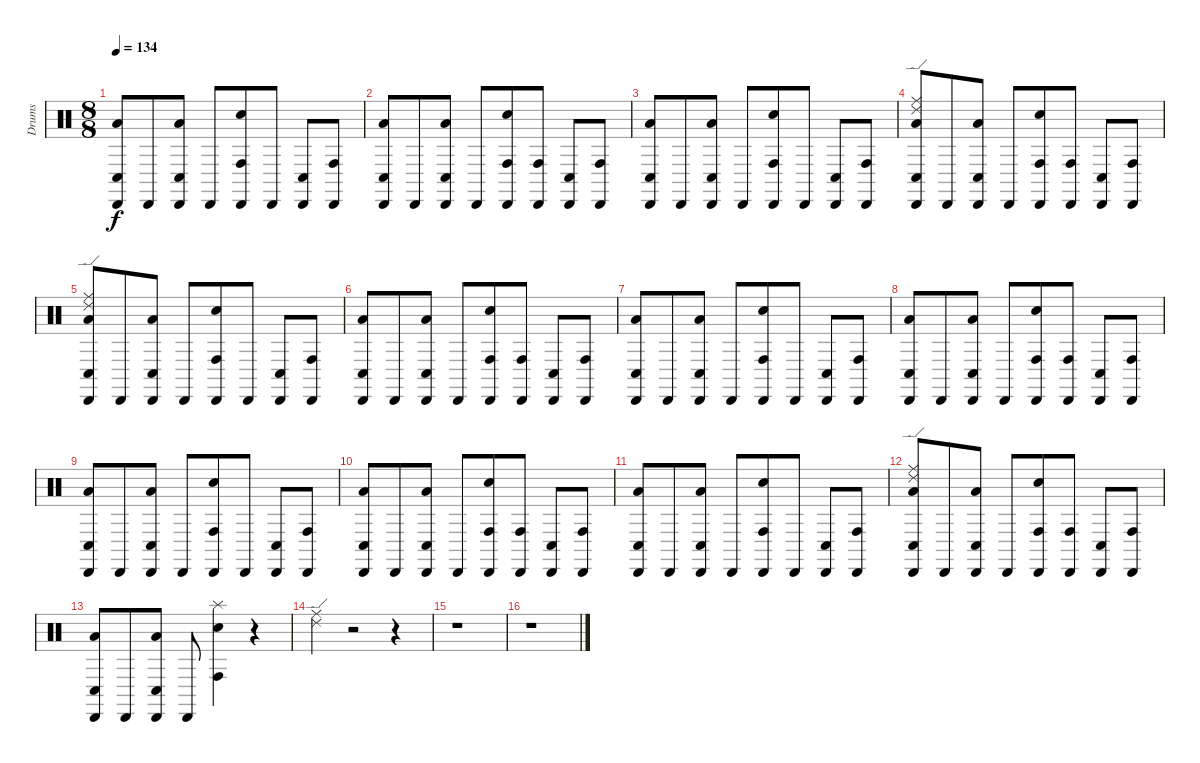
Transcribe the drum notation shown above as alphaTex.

\track ("Drums" "Drums") {instrument percussion}
\staff {score}
\articulation defaults
\ts (8 8)
\tempo 134
\clef neutral
\ks c
("Cabasa (hit)" "Low Tom (hit)" "Conga low (hit)").8{dy f} "Cabasa (hit)".8 ("Cabasa (hit)" "Low Tom (hit)" "Conga low (hit)").8 "Cabasa (hit)".8 ("Electric Snare (hit)" "Cabasa (hit)" "Conga high (hit)").8 "Cabasa (hit)".8 ("Cabasa (hit)" "Conga low (hit)").8 ("Cabasa (hit)" "Conga high (hit)").8 |
("Cabasa (hit)" "Low Tom (hit)" "Conga low (hit)").8 "Cabasa (hit)".8 ("Cabasa (hit)" "Low Tom (hit)" "Conga low (hit)").8 "Cabasa (hit)".8 ("Electric Snare (hit)" "Cabasa (hit)" "Conga high (hit)").8 ("Conga high (hit)" "Cabasa (hit)").8 ("Cabasa (hit)" "Conga low (hit)").8 ("Cabasa (hit)" "Conga high (hit)").8 |
("Cabasa (hit)" "Low Tom (hit)" "Conga low (hit)").8 "Cabasa (hit)".8 ("Cabasa (hit)" "Low Tom (hit)" "Conga low (hit)").8 "Cabasa (hit)".8 ("Electric Snare (hit)" "Cabasa (hit)" "Conga high (hit)").8 "Cabasa (hit)".8 ("Cabasa (hit)" "Conga low (hit)").8 ("Cabasa (hit)" "Conga high (hit)").8 |
("Ride (middle)" "Ride (edge) 2" "Cabasa (hit)" "Low Tom (hit)" "Conga low (hit)").8 "Cabasa (hit)".8 ("Cabasa (hit)" "Low Tom (hit)" "Conga low (hit)").8 "Cabasa (hit)".8 ("Electric Snare (hit)" "Cabasa (hit)" "Conga high (hit)").8 ("Conga high (hit)" "Cabasa (hit)").8 ("Cabasa (hit)" "Conga low (hit)").8 ("Cabasa (hit)" "Conga high (hit)").8 |
("Ride (edge) 2" "Ride (middle)" "Cabasa (hit)" "Low Tom (hit)" "Conga low (hit)").8 "Cabasa (hit)".8 ("Cabasa (hit)" "Low Tom (hit)" "Conga low (hit)").8 "Cabasa (hit)".8 ("Electric Snare (hit)" "Cabasa (hit)" "Conga high (hit)").8 "Cabasa (hit)".8 ("Cabasa (hit)" "Conga low (hit)").8 ("Cabasa (hit)" "Conga high (hit)").8 |
("Cabasa (hit)" "Low Tom (hit)" "Conga low (hit)").8 "Cabasa (hit)".8 ("Cabasa (hit)" "Low Tom (hit)" "Conga low (hit)").8 "Cabasa (hit)".8 ("Electric Snare (hit)" "Cabasa (hit)" "Conga high (hit)").8 ("Conga high (hit)" "Cabasa (hit)").8 ("Cabasa (hit)" "Conga low (hit)").8 ("Cabasa (hit)" "Conga high (hit)").8 |
("Cabasa (hit)" "Low Tom (hit)" "Conga low (hit)").8 "Cabasa (hit)".8 ("Cabasa (hit)" "Low Tom (hit)" "Conga low (hit)").8 "Cabasa (hit)".8 ("Electric Snare (hit)" "Cabasa (hit)" "Conga high (hit)").8 "Cabasa (hit)".8 ("Cabasa (hit)" "Conga low (hit)").8 ("Cabasa (hit)" "Conga high (hit)").8 |
("Cabasa (hit)" "Low Tom (hit)" "Conga low (hit)").8 "Cabasa (hit)".8 ("Cabasa (hit)" "Low Tom (hit)" "Conga low (hit)").8 "Cabasa (hit)".8 ("Electric Snare (hit)" "Cabasa (hit)" "Conga high (hit)").8 ("Conga high (hit)" "Cabasa (hit)").8 ("Cabasa (hit)" "Conga low (hit)").8 ("Cabasa (hit)" "Conga high (hit)").8 |
("Cabasa (hit)" "Low Tom (hit)" "Conga low (hit)").8 "Cabasa (hit)".8 ("Cabasa (hit)" "Low Tom (hit)" "Conga low (hit)").8 "Cabasa (hit)".8 ("Electric Snare (hit)" "Cabasa (hit)" "Conga high (hit)").8 "Cabasa (hit)".8 ("Cabasa (hit)" "Conga low (hit)").8 ("Cabasa (hit)" "Conga high (hit)").8 |
("Cabasa (hit)" "Low Tom (hit)" "Conga low (hit)").8 "Cabasa (hit)".8 ("Cabasa (hit)" "Low Tom (hit)" "Conga low (hit)").8 "Cabasa (hit)".8 ("Electric Snare (hit)" "Cabasa (hit)" "Conga high (hit)").8 ("Conga high (hit)" "Cabasa (hit)").8 ("Cabasa (hit)" "Conga low (hit)").8 ("Cabasa (hit)" "Conga high (hit)").8 |
("Cabasa (hit)" "Low Tom (hit)" "Conga low (hit)").8 "Cabasa (hit)".8 ("Cabasa (hit)" "Low Tom (hit)" "Conga low (hit)").8 "Cabasa (hit)".8 ("Electric Snare (hit)" "Cabasa (hit)" "Conga high (hit)").8 "Cabasa (hit)".8 ("Cabasa (hit)" "Conga low (hit)").8 ("Cabasa (hit)" "Conga high (hit)").8 |
("Ride (middle)" "Ride (edge) 2" "Cabasa (hit)" "Low Tom (hit)" "Conga low (hit)").8 "Cabasa (hit)".8 ("Cabasa (hit)" "Low Tom (hit)" "Conga low (hit)").8 "Cabasa (hit)".8 ("Electric Snare (hit)" "Cabasa (hit)" "Conga high (hit)").8 ("Conga high (hit)" "Cabasa (hit)").8 ("Cabasa (hit)" "Conga low (hit)").8 ("Cabasa (hit)" "Conga high (hit)").8 |
("Conga low (hit)" "Low Tom (hit)" "Cabasa (hit)").8 "Cabasa (hit)".8 ("Conga low (hit)" "Cabasa (hit)" "Low Tom (hit)").8 "Cabasa (hit)".8 ("Electric Snare (hit)" "Splash (hit)" "Conga high (hit)").4 r.4 |
("Ride (middle)" "Ride (edge) 2").4 r.2 r.4 |
r.1 |
r.1
